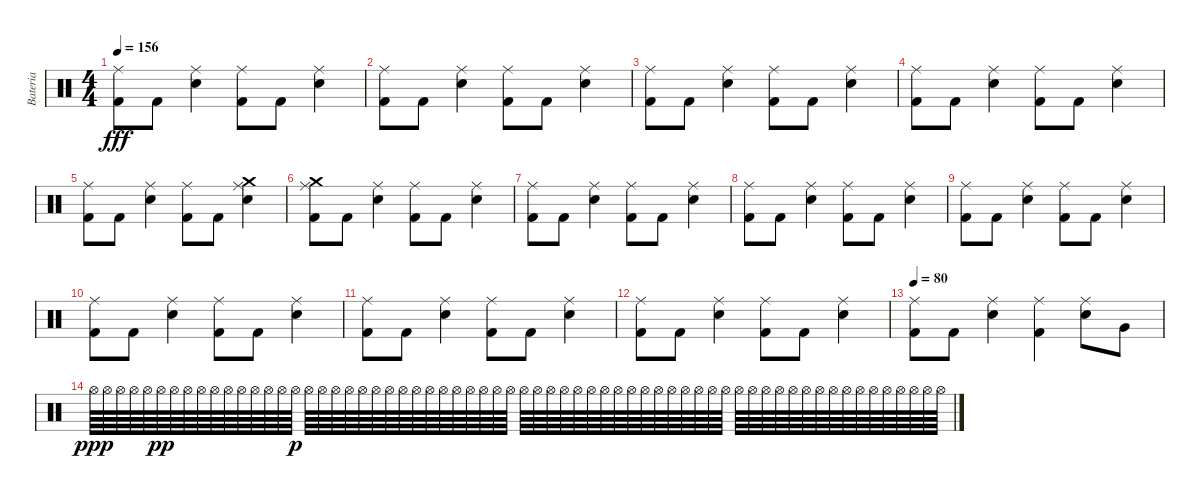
\track ("Bateria" "Bateria") {instrument percussion}
\staff {score}
\articulation defaults
\ts (4 4)
\tempo 156
\clef neutral
\ks c
("Ride (middle)" "Kick (hit) 2").8{dy fff} "Kick (hit) 2".8 ("Ride (middle)" "Electric Snare (hit)").4 ("Ride (middle)" "Kick (hit) 2").8 "Kick (hit) 2".8 ("Ride (middle)" "Electric Snare (hit)").4 |
("Ride (middle)" "Kick (hit) 2").8 "Kick (hit) 2".8 ("Ride (middle)" "Electric Snare (hit)").4 ("Ride (middle)" "Kick (hit) 2").8 "Kick (hit) 2".8 ("Ride (middle)" "Electric Snare (hit)").4 |
("Ride (middle)" "Kick (hit) 2").8 "Kick (hit) 2".8 ("Ride (middle)" "Electric Snare (hit)").4 ("Ride (middle)" "Kick (hit) 2").8 "Kick (hit) 2".8 ("Ride (middle)" "Electric Snare (hit)").4 |
("Ride (middle)" "Kick (hit) 2").8 "Kick (hit) 2".8 ("Ride (middle)" "Electric Snare (hit)").4 ("Ride (middle)" "Kick (hit) 2").8 "Kick (hit) 2".8 ("Ride (middle)" "Electric Snare (hit)").4 |
("Ride (middle)" "Kick (hit) 2").8 "Kick (hit) 2".8 ("Ride (middle)" "Electric Snare (hit)").4 ("Ride (middle)" "Kick (hit) 2").8 "Kick (hit) 2".8 ("Ride (middle)" "Electric Snare (hit)" "Crash medium (hit)").4 |
("Ride (middle)" "Kick (hit) 2" "Crash medium (hit)").8 "Kick (hit) 2".8 ("Ride (middle)" "Electric Snare (hit)").4 ("Ride (middle)" "Kick (hit) 2").8 "Kick (hit) 2".8 ("Ride (middle)" "Electric Snare (hit)").4 |
("Ride (middle)" "Kick (hit) 2").8 "Kick (hit) 2".8 ("Ride (middle)" "Electric Snare (hit)").4 ("Ride (middle)" "Kick (hit) 2").8 "Kick (hit) 2".8 ("Ride (middle)" "Electric Snare (hit)").4 |
("Ride (middle)" "Kick (hit) 2").8 "Kick (hit) 2".8 ("Ride (middle)" "Electric Snare (hit)").4 ("Ride (middle)" "Kick (hit) 2").8 "Kick (hit) 2".8 ("Ride (middle)" "Electric Snare (hit)").4 |
("Ride (middle)" "Kick (hit) 2").8 "Kick (hit) 2".8 ("Ride (middle)" "Electric Snare (hit)").4 ("Ride (middle)" "Kick (hit) 2").8 "Kick (hit) 2".8 ("Ride (middle)" "Electric Snare (hit)").4 |
("Ride (middle)" "Kick (hit) 2").8 "Kick (hit) 2".8 ("Ride (middle)" "Electric Snare (hit)").4 ("Ride (middle)" "Kick (hit) 2").8 "Kick (hit) 2".8 ("Ride (middle)" "Electric Snare (hit)").4 |
("Ride (middle)" "Kick (hit) 2").8 "Kick (hit) 2".8 ("Ride (middle)" "Electric Snare (hit)").4 ("Ride (middle)" "Kick (hit) 2").8 "Kick (hit) 2".8 ("Ride (middle)" "Electric Snare (hit)").4 |
("Ride (middle)" "Kick (hit) 2").8 "Kick (hit) 2".8 ("Ride (middle)" "Electric Snare (hit)").4 ("Ride (middle)" "Kick (hit) 2").8 "Kick (hit) 2".8 ("Ride (middle)" "Electric Snare (hit)").4 |
\tempo 80
("Ride (middle)" "Kick (hit) 2").8 "Kick (hit) 2".8 ("Ride (middle)" "Electric Snare (hit)").4 ("Ride (middle)" "Kick (hit) 2").4 ("Ride (middle)" "Electric Snare (hit)").8 "Very Low Tom (hit)".8 |
"Hi-Hat (open)".64{dy ppp} "Hi-Hat (open)".64 "Hi-Hat (open)".64 "Hi-Hat (open)".64 "Hi-Hat (open)".64 "Hi-Hat (open)".64{dy pp} "Hi-Hat (open)".64 "Hi-Hat (open)".64 "Hi-Hat (open)".64 "Hi-Hat (open)".64 "Hi-Hat (open)".64 "Hi-Hat (open)".64 "Hi-Hat (open)".64 "Hi-Hat (open)".64 "Hi-Hat (open)".64 "Hi-Hat (open)".64{dy p} "Hi-Hat (open)".64 "Hi-Hat (open)".64 "Hi-Hat (open)".64 "Hi-Hat (open)".64 "Hi-Hat (open)".64 "Hi-Hat (open)".64 "Hi-Hat (open)".64 "Hi-Hat (open)".64 "Hi-Hat (open)".64 "Hi-Hat (open)".64 "Hi-Hat (open)".64 "Hi-Hat (open)".64 "Hi-Hat (open)".64 "Hi-Hat (open)".64 "Hi-Hat (open)".64 "Hi-Hat (open)".64 "Hi-Hat (open)".64 "Hi-Hat (open)".64 "Hi-Hat (open)".64 "Hi-Hat (open)".64 "Hi-Hat (open)".64 "Hi-Hat (open)".64 "Hi-Hat (open)".64 "Hi-Hat (open)".64 "Hi-Hat (open)".64 "Hi-Hat (open)".64 "Hi-Hat (open)".64 "Hi-Hat (open)".64 "Hi-Hat (open)".64 "Hi-Hat (open)".64 "Hi-Hat (open)".64 "Hi-Hat (open)".64 "Hi-Hat (open)".64 "Hi-Hat (open)".64 "Hi-Hat (open)".64 "Hi-Hat (open)".64 "Hi-Hat (open)".64 "Hi-Hat (open)".64 "Hi-Hat (open)".64 "Hi-Hat (open)".64 "Hi-Hat (open)".64 "Hi-Hat (open)".64 "Hi-Hat (open)".64 "Hi-Hat (open)".64 "Hi-Hat (open)".64 "Hi-Hat (open)".64 "Hi-Hat (open)".64 "Hi-Hat (open)".64
